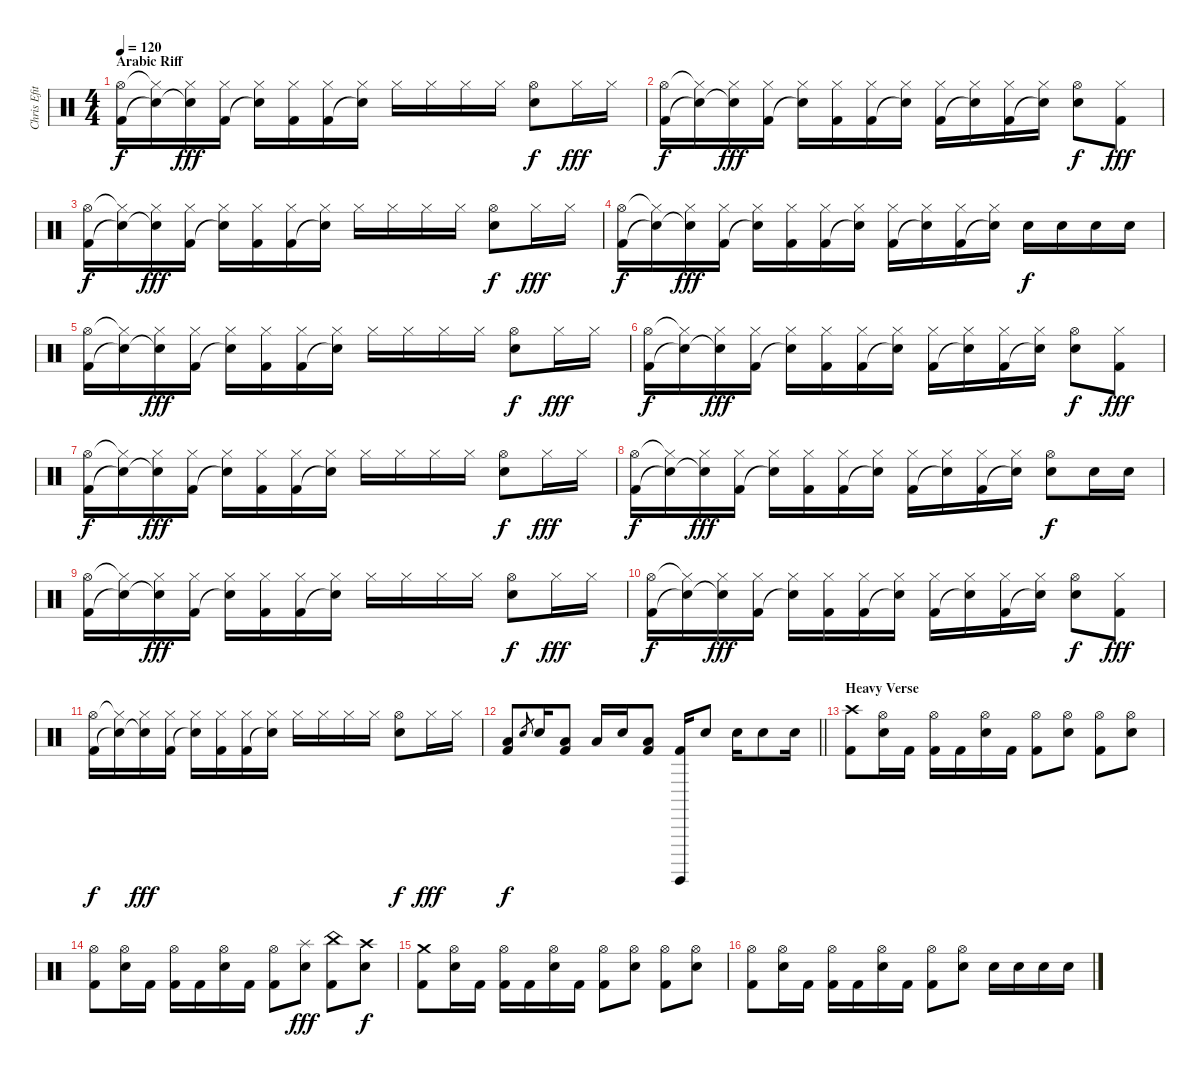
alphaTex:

\track ("Chris Efithimiadis (drums)" "Chris Efit") {instrument percussion}
\staff {score}
\articulation defaults
\ts (4 4)
\section ("" "Arabic Riff")
\tempo 120
\clef neutral
\ks c
("Hi-Hat (open)" "Kick (hit) 2").16{dy f} ("Hi-Hat (closed)"{t} "Snare (hit)"{t}).16 ("Hi-Hat (closed)" "Snare (hit)"{t}).16{dy fff} ("Hi-Hat (closed)" "Kick (hit) 2").16 ("Hi-Hat (closed)" "Snare (hit)"{t}).16 ("Hi-Hat (closed)" "Kick (hit) 2").16 ("Hi-Hat (closed)" "Kick (hit) 2").16 ("Hi-Hat (closed)" "Snare (hit)"{t}).16 "Hi-Hat (closed)".16 "Hi-Hat (closed)".16 "Hi-Hat (closed)".16 "Hi-Hat (closed)".16 ("Hi-Hat (open)" "Snare (hit) 2").8{dy f} "Hi-Hat (closed)".16{dy fff} "Hi-Hat (closed)".16 |
("Hi-Hat (open)" "Kick (hit) 2").16{dy f} ("Hi-Hat (closed)"{t} "Snare (hit)"{t}).16 ("Hi-Hat (closed)" "Snare (hit)"{t}).16{dy fff} ("Hi-Hat (closed)" "Kick (hit) 2").16 ("Hi-Hat (closed)" "Snare (hit)"{t}).16 ("Hi-Hat (closed)" "Kick (hit) 2").16 ("Hi-Hat (closed)" "Kick (hit) 2").16 ("Hi-Hat (closed)" "Snare (hit)"{t}).16 ("Hi-Hat (closed)" "Kick (hit) 2").16 ("Hi-Hat (closed)" "Snare (hit)"{t}).16 ("Hi-Hat (closed)" "Kick (hit) 2").16 ("Hi-Hat (closed)" "Snare (hit)"{t}).16 ("Hi-Hat (open)" "Snare (hit) 2").8{dy f} ("Hi-Hat (closed)" "Kick (hit) 2").8{dy fff} |
("Hi-Hat (open)" "Kick (hit) 2").16{dy f} ("Hi-Hat (closed)"{t} "Snare (hit)"{t}).16 ("Hi-Hat (closed)" "Snare (hit)"{t}).16{dy fff} ("Hi-Hat (closed)" "Kick (hit) 2").16 ("Hi-Hat (closed)" "Snare (hit)"{t}).16 ("Hi-Hat (closed)" "Kick (hit) 2").16 ("Hi-Hat (closed)" "Kick (hit) 2").16 ("Hi-Hat (closed)" "Snare (hit)"{t}).16 "Hi-Hat (closed)".16 "Hi-Hat (closed)".16 "Hi-Hat (closed)".16 "Hi-Hat (closed)".16 ("Hi-Hat (open)" "Snare (hit) 2").8{dy f} "Hi-Hat (closed)".16{dy fff} "Hi-Hat (closed)".16 |
("Hi-Hat (open)" "Kick (hit) 2").16{dy f} ("Hi-Hat (closed)"{t} "Snare (hit)"{t}).16 ("Hi-Hat (closed)" "Snare (hit)"{t}).16{dy fff} ("Hi-Hat (closed)" "Kick (hit) 2").16 ("Hi-Hat (closed)" "Snare (hit)"{t}).16 ("Hi-Hat (closed)" "Kick (hit) 2").16 ("Hi-Hat (closed)" "Kick (hit) 2").16 ("Hi-Hat (closed)" "Snare (hit)"{t}).16 ("Hi-Hat (closed)" "Kick (hit) 2").16 ("Hi-Hat (closed)" "Snare (hit)"{t}).16 ("Hi-Hat (closed)" "Kick (hit) 2").16 ("Hi-Hat (closed)" "Snare (hit)"{t}).16 "Snare (hit) 2".16{dy f} "Snare (hit) 2".16 "Snare (hit) 2".16 "Snare (hit) 2".16 |
("Hi-Hat (open)" "Kick (hit) 2").16 ("Hi-Hat (closed)"{t} "Snare (hit)"{t}).16 ("Hi-Hat (closed)" "Snare (hit)"{t}).16{dy fff} ("Hi-Hat (closed)" "Kick (hit) 2").16 ("Hi-Hat (closed)" "Snare (hit)"{t}).16 ("Hi-Hat (closed)" "Kick (hit) 2").16 ("Hi-Hat (closed)" "Kick (hit) 2").16 ("Hi-Hat (closed)" "Snare (hit)"{t}).16 "Hi-Hat (closed)".16 "Hi-Hat (closed)".16 "Hi-Hat (closed)".16 "Hi-Hat (closed)".16 ("Hi-Hat (open)" "Snare (hit) 2").8{dy f} "Hi-Hat (closed)".16{dy fff} "Hi-Hat (closed)".16 |
("Hi-Hat (open)" "Kick (hit) 2").16{dy f} ("Hi-Hat (closed)"{t} "Snare (hit)"{t}).16 ("Hi-Hat (closed)" "Snare (hit)"{t}).16{dy fff} ("Hi-Hat (closed)" "Kick (hit) 2").16 ("Hi-Hat (closed)" "Snare (hit)"{t}).16 ("Hi-Hat (closed)" "Kick (hit) 2").16 ("Hi-Hat (closed)" "Kick (hit) 2").16 ("Hi-Hat (closed)" "Snare (hit)"{t}).16 ("Hi-Hat (closed)" "Kick (hit) 2").16 ("Hi-Hat (closed)" "Snare (hit)"{t}).16 ("Hi-Hat (closed)" "Kick (hit) 2").16 ("Hi-Hat (closed)" "Snare (hit)"{t}).16 ("Hi-Hat (open)" "Snare (hit) 2").8{dy f} ("Hi-Hat (closed)" "Kick (hit) 2").8{dy fff} |
("Hi-Hat (open)" "Kick (hit) 2").16{dy f} ("Hi-Hat (closed)"{t} "Snare (hit)"{t}).16 ("Hi-Hat (closed)" "Snare (hit)"{t}).16{dy fff} ("Hi-Hat (closed)" "Kick (hit) 2").16 ("Hi-Hat (closed)" "Snare (hit)"{t}).16 ("Hi-Hat (closed)" "Kick (hit) 2").16 ("Hi-Hat (closed)" "Kick (hit) 2").16 ("Hi-Hat (closed)" "Snare (hit)"{t}).16 "Hi-Hat (closed)".16 "Hi-Hat (closed)".16 "Hi-Hat (closed)".16 "Hi-Hat (closed)".16 ("Hi-Hat (open)" "Snare (hit) 2").8{dy f} "Hi-Hat (closed)".16{dy fff} "Hi-Hat (closed)".16 |
("Hi-Hat (open)" "Kick (hit) 2").16{dy f} ("Hi-Hat (closed)"{t} "Snare (hit)"{t}).16 ("Hi-Hat (closed)" "Snare (hit)"{t}).16{dy fff} ("Hi-Hat (closed)" "Kick (hit) 2").16 ("Hi-Hat (closed)" "Snare (hit)"{t}).16 ("Hi-Hat (closed)" "Kick (hit) 2").16 ("Hi-Hat (closed)" "Kick (hit) 2").16 ("Hi-Hat (closed)" "Snare (hit)"{t}).16 ("Hi-Hat (closed)" "Kick (hit) 2").16 ("Hi-Hat (closed)" "Snare (hit)"{t}).16 ("Hi-Hat (closed)" "Kick (hit) 2").16 ("Hi-Hat (closed)" "Snare (hit)"{t}).16 ("Hi-Hat (open)" "Snare (hit) 2").8{dy f} "Snare (hit) 2".16 "Snare (hit) 2".16 |
("Hi-Hat (open)" "Kick (hit) 2").16 ("Hi-Hat (closed)"{t} "Snare (hit)"{t}).16 ("Hi-Hat (closed)" "Snare (hit)"{t}).16{dy fff} ("Hi-Hat (closed)" "Kick (hit) 2").16 ("Hi-Hat (closed)" "Snare (hit)"{t}).16 ("Hi-Hat (closed)" "Kick (hit) 2").16 ("Hi-Hat (closed)" "Kick (hit) 2").16 ("Hi-Hat (closed)" "Snare (hit)"{t}).16 "Hi-Hat (closed)".16 "Hi-Hat (closed)".16 "Hi-Hat (closed)".16 "Hi-Hat (closed)".16 ("Hi-Hat (open)" "Snare (hit) 2").8{dy f} "Hi-Hat (closed)".16{dy fff} "Hi-Hat (closed)".16 |
("Hi-Hat (open)" "Kick (hit) 2").16{dy f} ("Hi-Hat (closed)"{t} "Snare (hit)"{t}).16 ("Hi-Hat (closed)" "Snare (hit)"{t}).16{dy fff} ("Hi-Hat (closed)" "Kick (hit) 2").16 ("Hi-Hat (closed)" "Snare (hit)"{t}).16 ("Hi-Hat (closed)" "Kick (hit) 2").16 ("Hi-Hat (closed)" "Kick (hit) 2").16 ("Hi-Hat (closed)" "Snare (hit)"{t}).16 ("Hi-Hat (closed)" "Kick (hit) 2").16 ("Hi-Hat (closed)" "Snare (hit)"{t}).16 ("Hi-Hat (closed)" "Kick (hit) 2").16 ("Hi-Hat (closed)" "Snare (hit)"{t}).16 ("Hi-Hat (open)" "Snare (hit) 2").8{dy f} ("Hi-Hat (closed)" "Kick (hit) 2").8{dy fff} |
("Hi-Hat (open)" "Kick (hit) 2").16{dy f} ("Hi-Hat (closed)"{t} "Snare (hit)"{t}).16 ("Hi-Hat (closed)" "Snare (hit)"{t}).16{dy fff} ("Hi-Hat (closed)" "Kick (hit) 2").16 ("Hi-Hat (closed)" "Snare (hit)"{t}).16 ("Hi-Hat (closed)" "Kick (hit) 2").16 ("Hi-Hat (closed)" "Kick (hit) 2").16 ("Hi-Hat (closed)" "Snare (hit)"{t}).16 "Hi-Hat (closed)".16 "Hi-Hat (closed)".16 "Hi-Hat (closed)".16 "Hi-Hat (closed)".16 ("Hi-Hat (open)" "Snare (hit) 2").8{dy f} "Hi-Hat (closed)".16{dy fff} "Hi-Hat (closed)".16 |
\barLineRight lightlight
("Low Floor Tom (hit)" "Kick (hit) 2").8{dy f} "Snare (hit) 2".8{gr} "Snare (hit) 2".16 ("Low Floor Tom (hit)" "Kick (hit) 2").8 "Low Floor Tom (hit)".16 "Snare (hit) 2".16 ("Low Floor Tom (hit)" "Kick (hit) 2").8 ("Surdo (hit)" "Kick (hit) 2").16 "Snare (hit) 2".8 "Snare (hit) 2".16 "Snare (hit) 2".8 "Snare (hit) 2".16 |
\section ("" "Heavy Verse")
("Crash high (hit)" "Kick (hit) 2").8 ("Hi-Hat (open)" "Snare (hit) 2").16 "Kick (hit) 2".16 ("Hi-Hat (open)" "Kick (hit) 2").16 "Kick (hit) 2".16 ("Hi-Hat (open)" "Snare (hit) 2").16 "Kick (hit) 2".16 ("Hi-Hat (open)" "Kick (hit) 2").8 ("Hi-Hat (open)" "Snare (hit) 2").8 ("Hi-Hat (open)" "Kick (hit) 2").8 ("Hi-Hat (open)" "Snare (hit) 2").8 |
("Hi-Hat (open)" "Kick (hit) 2").8 ("Hi-Hat (open)" "Snare (hit) 2").16 "Kick (hit) 2".16 ("Hi-Hat (open)" "Kick (hit) 2").16 "Kick (hit) 2".16 ("Hi-Hat (open)" "Snare (hit) 2").16 "Kick (hit) 2".16 ("Hi-Hat (open)" "Kick (hit) 2").8 ("Splash (hit)" "Snare (hit) 2").8{dy fff} ("China (hit)" "Kick (hit) 2").8 ("Crash high (hit)" "Snare (hit) 2").8{dy f} |
("Crash medium (hit)" "Kick (hit) 2").8 ("Hi-Hat (open)" "Snare (hit) 2").16 "Kick (hit) 2".16 ("Hi-Hat (open)" "Kick (hit) 2").16 "Kick (hit) 2".16 ("Hi-Hat (open)" "Snare (hit) 2").16 "Kick (hit) 2".16 ("Hi-Hat (open)" "Kick (hit) 2").8 ("Hi-Hat (open)" "Snare (hit) 2").8 ("Hi-Hat (open)" "Kick (hit) 2").8 ("Hi-Hat (open)" "Snare (hit) 2").8 |
("Hi-Hat (open)" "Kick (hit) 2").8 ("Hi-Hat (open)" "Snare (hit) 2").16 "Kick (hit) 2".16 ("Hi-Hat (open)" "Kick (hit) 2").16 "Kick (hit) 2".16 ("Hi-Hat (open)" "Snare (hit) 2").16 "Kick (hit) 2".16 ("Hi-Hat (open)" "Kick (hit) 2").8 ("Hi-Hat (open)" "Snare (hit) 2").8 "Snare (hit) 2".16 "Snare (hit) 2".16 "Snare (hit) 2".16 "Snare (hit) 2".16
